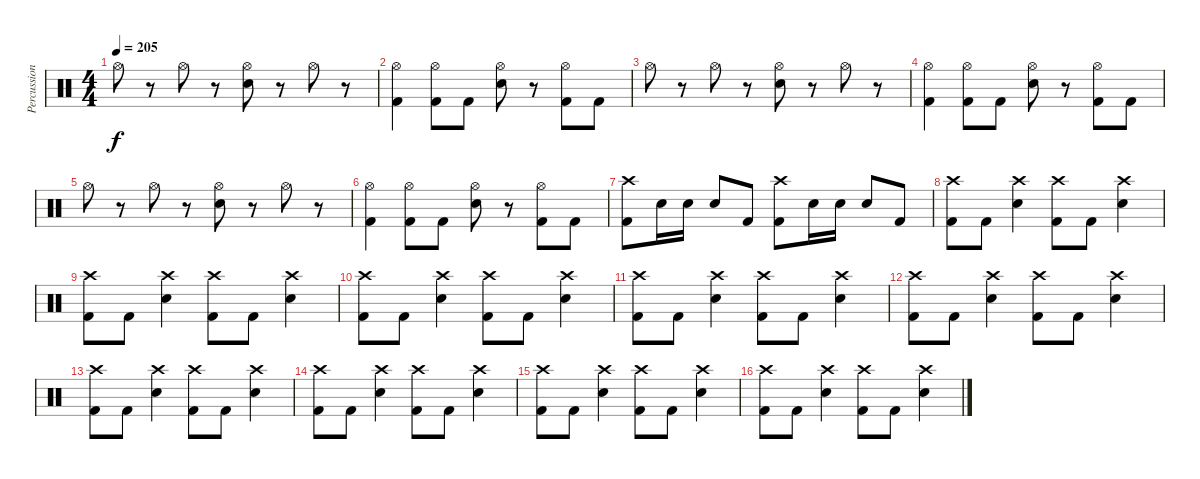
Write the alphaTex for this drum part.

\track ("Percussions" "Percussion") {instrument percussion}
\staff {score}
\articulation defaults
\ts (4 4)
\tempo 205
\clef neutral
\ks c "Hi-Hat (open)".8{dy f}
r.8 "Hi-Hat (open)".8 r.8 ("Hi-Hat (open)" "Snare (hit) 2").8 r.8 "Hi-Hat (open)".8 r.8 |
("Hi-Hat (open)" "Kick (hit) 2").4 ("Hi-Hat (open)" "Kick (hit) 2").8 "Kick (hit) 2".8 ("Hi-Hat (open)" "Snare (hit) 2").8 r.8 ("Hi-Hat (open)" "Kick (hit) 2").8 "Kick (hit) 2".8 |
"Hi-Hat (open)".8 r.8 "Hi-Hat (open)".8 r.8 ("Hi-Hat (open)" "Snare (hit) 2").8 r.8 "Hi-Hat (open)".8 r.8 |
("Hi-Hat (open)" "Kick (hit) 2").4 ("Hi-Hat (open)" "Kick (hit) 2").8 "Kick (hit) 2".8 ("Hi-Hat (open)" "Snare (hit) 2").8 r.8 ("Hi-Hat (open)" "Kick (hit) 2").8 "Kick (hit) 2".8 |
"Hi-Hat (open)".8 r.8 "Hi-Hat (open)".8 r.8 ("Hi-Hat (open)" "Snare (hit) 2").8 r.8 "Hi-Hat (open)".8 r.8 |
("Hi-Hat (open)" "Kick (hit) 2").4 ("Hi-Hat (open)" "Kick (hit) 2").8 "Kick (hit) 2".8 ("Hi-Hat (open)" "Snare (hit) 2").8 r.8 ("Hi-Hat (open)" "Kick (hit) 2").8 "Kick (hit) 2".8 |
("Crash high (hit)" "Kick (hit) 2").8 "Snare (hit) 2".16 "Snare (hit) 2".16 "Snare (hit) 2".8 "Kick (hit) 2".8 ("Crash high (hit)" "Kick (hit) 2").8 "Snare (hit) 2".16 "Snare (hit) 2".16 "Snare (hit) 2".8 "Kick (hit) 2".8 |
("Crash high (hit)" "Kick (hit) 2").8 "Kick (hit) 2".8 ("Crash high (hit)" "Snare (hit) 2").4 ("Crash high (hit)" "Kick (hit) 2").8 "Kick (hit) 2".8 ("Crash high (hit)" "Snare (hit) 2").4 |
("Crash high (hit)" "Kick (hit) 2").8 "Kick (hit) 2".8 ("Crash high (hit)" "Snare (hit) 2").4 ("Crash high (hit)" "Kick (hit) 2").8 "Kick (hit) 2".8 ("Crash high (hit)" "Snare (hit) 2").4 |
("Crash high (hit)" "Kick (hit) 2").8 "Kick (hit) 2".8 ("Crash high (hit)" "Snare (hit) 2").4 ("Crash high (hit)" "Kick (hit) 2").8 "Kick (hit) 2".8 ("Crash high (hit)" "Snare (hit) 2").4 |
("Crash high (hit)" "Kick (hit) 2").8 "Kick (hit) 2".8 ("Crash high (hit)" "Snare (hit) 2").4 ("Crash high (hit)" "Kick (hit) 2").8 "Kick (hit) 2".8 ("Crash high (hit)" "Snare (hit) 2").4 |
("Crash high (hit)" "Kick (hit) 2").8 "Kick (hit) 2".8 ("Crash high (hit)" "Snare (hit) 2").4 ("Crash high (hit)" "Kick (hit) 2").8 "Kick (hit) 2".8 ("Crash high (hit)" "Snare (hit) 2").4 |
("Crash high (hit)" "Kick (hit) 2").8 "Kick (hit) 2".8 ("Crash high (hit)" "Snare (hit) 2").4 ("Crash high (hit)" "Kick (hit) 2").8 "Kick (hit) 2".8 ("Crash high (hit)" "Snare (hit) 2").4 |
("Crash high (hit)" "Kick (hit) 2").8 "Kick (hit) 2".8 ("Crash high (hit)" "Snare (hit) 2").4 ("Crash high (hit)" "Kick (hit) 2").8 "Kick (hit) 2".8 ("Crash high (hit)" "Snare (hit) 2").4 |
("Crash high (hit)" "Kick (hit) 2").8 "Kick (hit) 2".8 ("Crash high (hit)" "Snare (hit) 2").4 ("Crash high (hit)" "Kick (hit) 2").8 "Kick (hit) 2".8 ("Crash high (hit)" "Snare (hit) 2").4 |
("Crash high (hit)" "Kick (hit) 2").8 "Kick (hit) 2".8 ("Crash high (hit)" "Snare (hit) 2").4 ("Crash high (hit)" "Kick (hit) 2").8 "Kick (hit) 2".8 ("Crash high (hit)" "Snare (hit) 2").4
